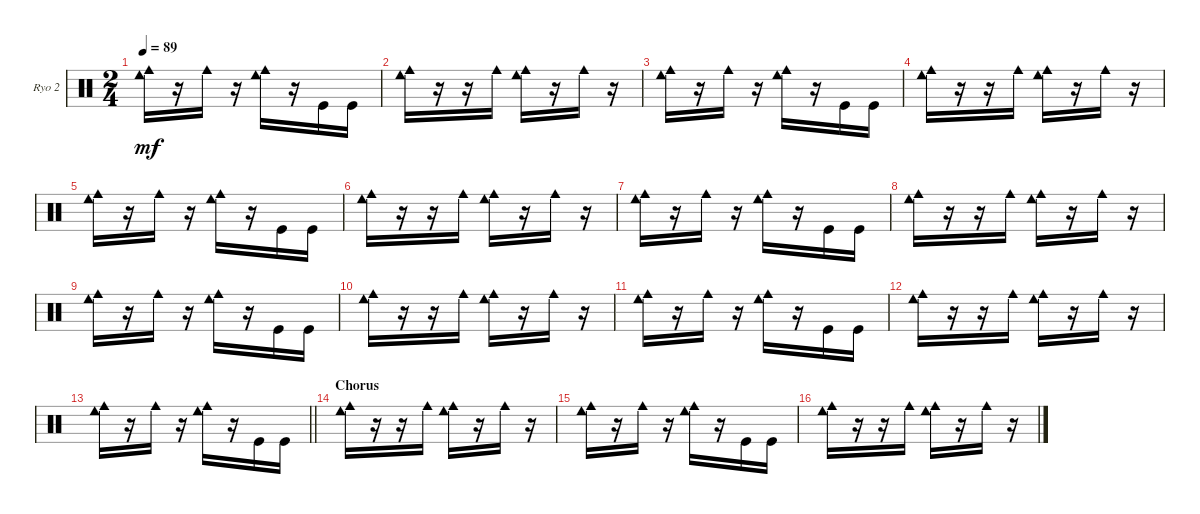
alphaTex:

\bracketExtendMode groupsimilarinstruments
\firstSystemTrackNameOrientation horizontal
\otherSystemsTrackNameOrientation horizontal
\track ("Ryo2 [Additional Drums]" "Ryo 2") {instrument percussion}
\staff {score}
\articulation defaults
\ts (2 4)
\tempo 89
\clef neutral
\ks c
("Cowbell low (hit)" "Cowbell medium (hit)").16{dy mf} r.16 "Cowbell medium (hit)".16 r.16 ("Cowbell medium (hit)" "Cowbell low (hit)").16 r.16 "Kick (hit)".16 "Kick (hit)".16 |
("Cowbell low (hit)" "Cowbell medium (hit)").16 r.16 r.16 "Cowbell medium (hit)".16 ("Cowbell medium (hit)" "Cowbell low (hit)").16 r.16 "Cowbell medium (hit)".16 r.16 |
("Cowbell low (hit)" "Cowbell medium (hit)").16 r.16 "Cowbell medium (hit)".16 r.16 ("Cowbell medium (hit)" "Cowbell low (hit)").16 r.16 "Kick (hit)".16 "Kick (hit)".16 |
("Cowbell low (hit)" "Cowbell medium (hit)").16 r.16 r.16 "Cowbell medium (hit)".16 ("Cowbell medium (hit)" "Cowbell low (hit)").16 r.16 "Cowbell medium (hit)".16 r.16 |
("Cowbell low (hit)" "Cowbell medium (hit)").16 r.16 "Cowbell medium (hit)".16 r.16 ("Cowbell medium (hit)" "Cowbell low (hit)").16 r.16 "Kick (hit)".16 "Kick (hit)".16 |
("Cowbell low (hit)" "Cowbell medium (hit)").16 r.16 r.16 "Cowbell medium (hit)".16 ("Cowbell medium (hit)" "Cowbell low (hit)").16 r.16 "Cowbell medium (hit)".16 r.16 |
("Cowbell low (hit)" "Cowbell medium (hit)").16 r.16 "Cowbell medium (hit)".16 r.16 ("Cowbell medium (hit)" "Cowbell low (hit)").16 r.16 "Kick (hit)".16 "Kick (hit)".16 |
("Cowbell low (hit)" "Cowbell medium (hit)").16 r.16 r.16 "Cowbell medium (hit)".16 ("Cowbell medium (hit)" "Cowbell low (hit)").16 r.16 "Cowbell medium (hit)".16 r.16 |
("Cowbell low (hit)" "Cowbell medium (hit)").16 r.16 "Cowbell medium (hit)".16 r.16 ("Cowbell medium (hit)" "Cowbell low (hit)").16 r.16 "Kick (hit)".16 "Kick (hit)".16 |
\scale
0.377778 ("Cowbell low (hit)" "Cowbell medium (hit)").16 r.16 r.16 "Cowbell medium (hit)".16 ("Cowbell medium (hit)" "Cowbell low (hit)").16 r.16 "Cowbell medium (hit)".16 r.16 |
\scale
0.311111 ("Cowbell low (hit)" "Cowbell medium (hit)").16 r.16 "Cowbell medium (hit)".16 r.16 ("Cowbell medium (hit)" "Cowbell low (hit)").16 r.16 "Kick (hit)".16 "Kick (hit)".16 |
\scale
0.311111 ("Cowbell low (hit)" "Cowbell medium (hit)").16 r.16 r.16 "Cowbell medium (hit)".16 ("Cowbell medium (hit)" "Cowbell low (hit)").16 r.16 "Cowbell medium (hit)".16 r.16 |
\scale
0.333333
\barLineRight lightlight
("Cowbell low (hit)" "Cowbell medium (hit)").16 r.16 "Cowbell medium (hit)".16 r.16 ("Cowbell medium (hit)" "Cowbell low (hit)").16 r.16 "Kick (hit)".16 "Kick (hit)".16 |
\section ("" "Chorus")
\scale
0.365591 ("Cowbell low (hit)" "Cowbell medium (hit)").16 r.16 r.16 "Cowbell medium (hit)".16 ("Cowbell medium (hit)" "Cowbell low (hit)").16 r.16 "Cowbell medium (hit)".16 r.16 |
\scale
0.301075 ("Cowbell low (hit)" "Cowbell medium (hit)").16 r.16 "Cowbell medium (hit)".16 r.16 ("Cowbell medium (hit)" "Cowbell low (hit)").16 r.16 "Kick (hit)".16 "Kick (hit)".16 |
\scale
0.321839 ("Cowbell low (hit)" "Cowbell medium (hit)").16 r.16 r.16 "Cowbell medium (hit)".16 ("Cowbell medium (hit)" "Cowbell low (hit)").16 r.16 "Cowbell medium (hit)".16 r.16
